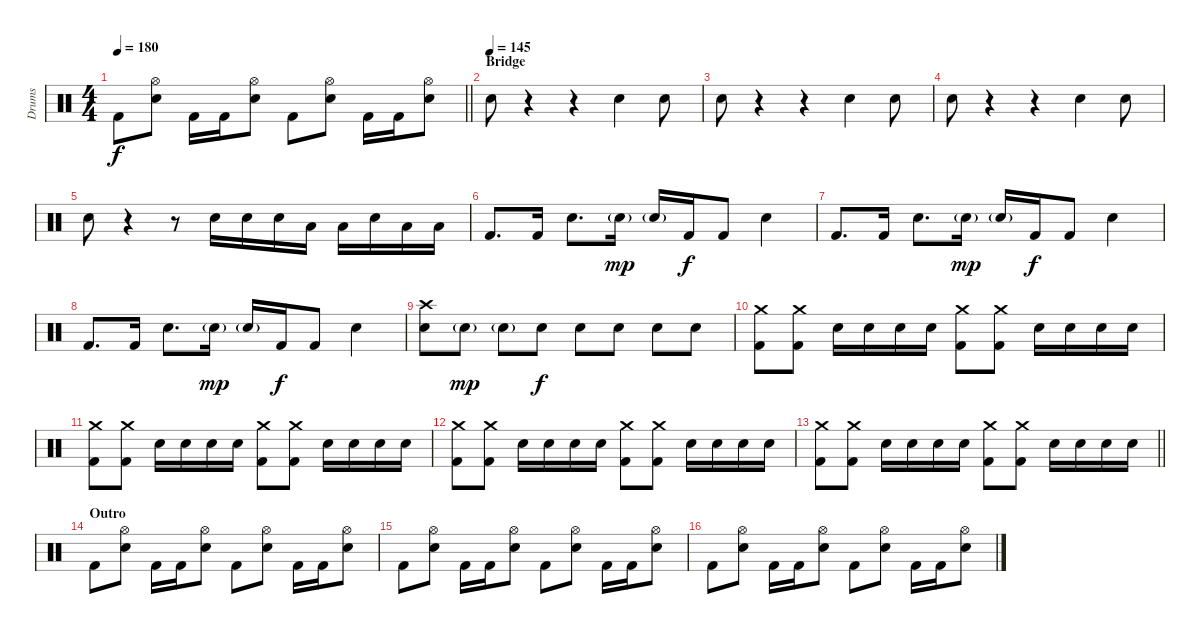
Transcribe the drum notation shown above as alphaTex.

\track ("Drums" "Drums") {instrument percussion}
\staff {score}
\articulation defaults
\ts (4 4)
\tempo 180
\clef neutral
\barLineRight lightlight
\ks c "Kick (hit) 2".8{dy f}
("Hi-Hat (open)" "Electric Snare (hit)").8 "Kick (hit) 2".16 "Kick (hit) 2".16 ("Hi-Hat (open)" "Electric Snare (hit)").8 "Kick (hit) 2".8 ("Hi-Hat (open)" "Electric Snare (hit)").8 "Kick (hit) 2".16 "Kick (hit) 2".16 ("Hi-Hat (open)" "Electric Snare (hit)").8 |
\section ("" "Bridge")
\tempo (145)
"Electric Snare (hit)".8 r.4 r.4 "Electric Snare (hit)".4 "Electric Snare (hit)".8 |
"Electric Snare (hit)".8 r.4 r.4 "Electric Snare (hit)".4 "Electric Snare (hit)".8 |
"Electric Snare (hit)".8 r.4 r.4 "Electric Snare (hit)".4 "Electric Snare (hit)".8 |
"Electric Snare (hit)".8 r.4 r.8 "Electric Snare (hit)".16 "Electric Snare (hit)".16 "Electric Snare (hit)".16 "Low Tom (hit)".16 "Low Tom (hit)".16 "Electric Snare (hit)".16 "Low Tom (hit)".16 "Low Tom (hit)".16 |
"Kick (hit) 2".8{d} "Kick (hit) 2".16 "Electric Snare (hit)".8{d} "Electric Snare (hit)"{g}.16{dy mp} "Electric Snare (hit)"{g}.16 "Kick (hit) 2".16{dy f} "Kick (hit) 2".8 "Electric Snare (hit)".4 |
"Kick (hit) 2".8{d} "Kick (hit) 2".16 "Electric Snare (hit)".8{d} "Electric Snare (hit)"{g}.16{dy mp} "Electric Snare (hit)"{g}.16 "Kick (hit) 2".16{dy f} "Kick (hit) 2".8 "Electric Snare (hit)".4 |
"Kick (hit) 2".8{d} "Kick (hit) 2".16 "Electric Snare (hit)".8{d} "Electric Snare (hit)"{g}.16{dy mp} "Electric Snare (hit)"{g}.16 "Kick (hit) 2".16{dy f} "Kick (hit) 2".8 "Electric Snare (hit)".4 |
("Crash high (hit)" "Electric Snare (hit)").8 "Electric Snare (hit)"{g}.8{dy mp} "Electric Snare (hit)"{g}.8 "Electric Snare (hit)".8{dy f} "Electric Snare (hit)".8 "Electric Snare (hit)".8 "Electric Snare (hit)".8 "Electric Snare (hit)".8 |
("Crash medium (hit)" "Kick (hit) 2").8 ("Crash medium (hit)" "Kick (hit) 2").8 "Electric Snare (hit)".16 "Electric Snare (hit)".16 "Electric Snare (hit)".16 "Electric Snare (hit)".16 ("Crash medium (hit)" "Kick (hit) 2").8 ("Crash medium (hit)" "Kick (hit) 2").8 "Electric Snare (hit)".16 "Electric Snare (hit)".16 "Electric Snare (hit)".16 "Electric Snare (hit)".16 |
("Crash medium (hit)" "Kick (hit) 2").8 ("Crash medium (hit)" "Kick (hit) 2").8 "Electric Snare (hit)".16 "Electric Snare (hit)".16 "Electric Snare (hit)".16 "Electric Snare (hit)".16 ("Crash medium (hit)" "Kick (hit) 2").8 ("Crash medium (hit)" "Kick (hit) 2").8 "Electric Snare (hit)".16 "Electric Snare (hit)".16 "Electric Snare (hit)".16 "Electric Snare (hit)".16 |
("Crash medium (hit)" "Kick (hit) 2").8 ("Crash medium (hit)" "Kick (hit) 2").8 "Electric Snare (hit)".16 "Electric Snare (hit)".16 "Electric Snare (hit)".16 "Electric Snare (hit)".16 ("Crash medium (hit)" "Kick (hit) 2").8 ("Crash medium (hit)" "Kick (hit) 2").8 "Electric Snare (hit)".16 "Electric Snare (hit)".16 "Electric Snare (hit)".16 "Electric Snare (hit)".16 |
\barLineRight lightlight
("Crash medium (hit)" "Kick (hit) 2").8 ("Crash medium (hit)" "Kick (hit) 2").8 "Electric Snare (hit)".16 "Electric Snare (hit)".16 "Electric Snare (hit)".16 "Electric Snare (hit)".16 ("Crash medium (hit)" "Kick (hit) 2").8 ("Crash medium (hit)" "Kick (hit) 2").8 "Electric Snare (hit)".16 "Electric Snare (hit)".16 "Electric Snare (hit)".16 "Electric Snare (hit)".16 |
\section ("" "Outro")
"Kick (hit) 2".8 ("Hi-Hat (open)" "Electric Snare (hit)").8 "Kick (hit) 2".16 "Kick (hit) 2".16 ("Hi-Hat (open)" "Electric Snare (hit)").8 "Kick (hit) 2".8 ("Hi-Hat (open)" "Electric Snare (hit)").8 "Kick (hit) 2".16 "Kick (hit) 2".16 ("Hi-Hat (open)" "Electric Snare (hit)").8 |
"Kick (hit) 2".8 ("Hi-Hat (open)" "Electric Snare (hit)").8 "Kick (hit) 2".16 "Kick (hit) 2".16 ("Hi-Hat (open)" "Electric Snare (hit)").8 "Kick (hit) 2".8 ("Hi-Hat (open)" "Electric Snare (hit)").8 "Kick (hit) 2".16 "Kick (hit) 2".16 ("Hi-Hat (open)" "Electric Snare (hit)").8 |
"Kick (hit) 2".8 ("Hi-Hat (open)" "Electric Snare (hit)").8 "Kick (hit) 2".16 "Kick (hit) 2".16 ("Hi-Hat (open)" "Electric Snare (hit)").8 "Kick (hit) 2".8 ("Hi-Hat (open)" "Electric Snare (hit)").8 "Kick (hit) 2".16 "Kick (hit) 2".16 ("Hi-Hat (open)" "Electric Snare (hit)").8
